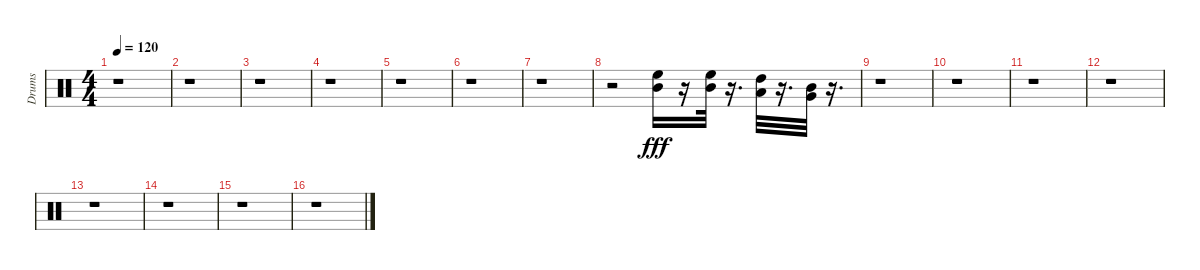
\track ("Drums" "Drums") {instrument percussion}
\staff {score}
\articulation defaults
\ts (4 4)
\tempo 120
\clef neutral
\ks c
r.1{dy fff} |
r.1 |
r.1 |
r.1 |
r.1 |
r.1 |
r.1 |
r.2 ("Mid Tom (hit)" "High Floor Tom (hit)").16 r.16 ("Mid Tom (hit)" "High Floor Tom (hit)").32 r.16{d} ("Low Tom (hit)" "High Tom (hit)").32 r.16{d} ("Very Low Tom (hit)" "Mid Tom (hit)").32 r.16{d} |
r.1 |
r.1 |
r.1 |
r.1 |
r.1 |
r.1 |
r.1 |
r.1
